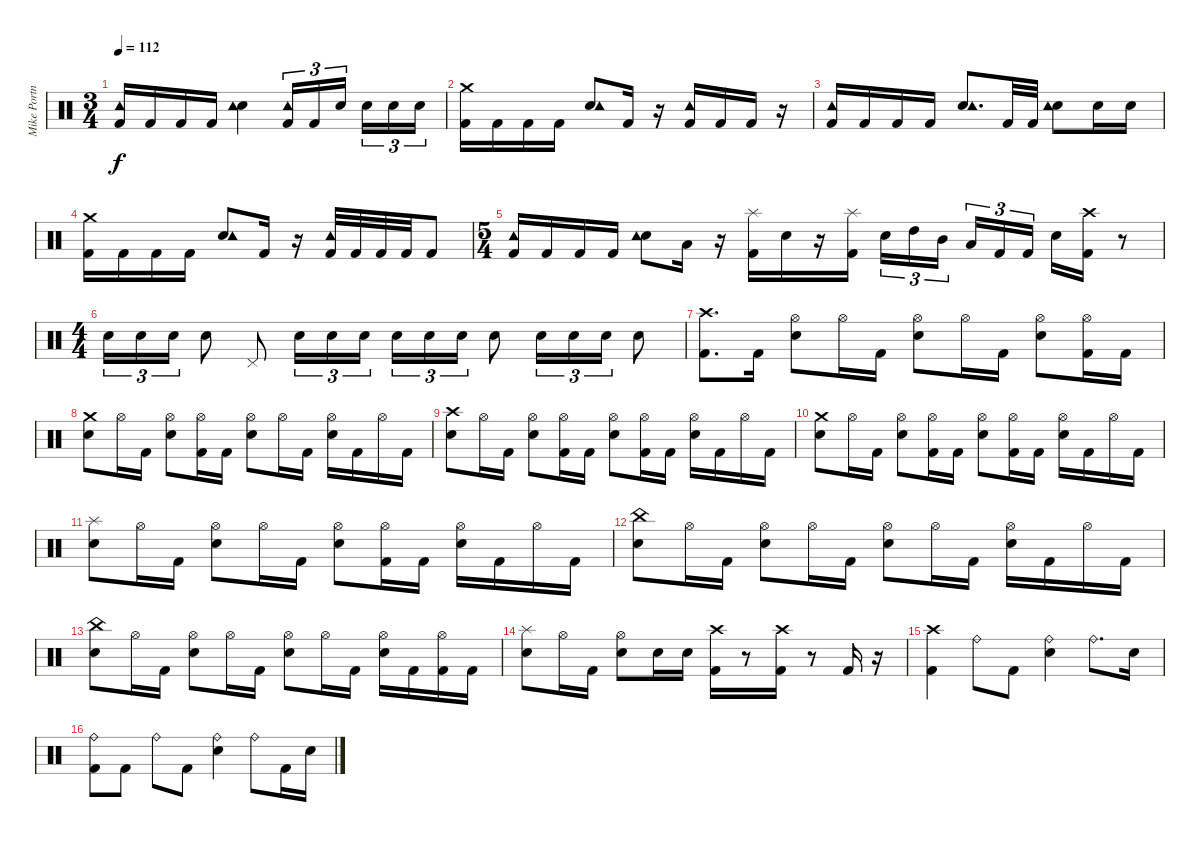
\track ("Mike Portnoy" "Mike Portn") {instrument percussion}
\staff {score}
\articulation defaults
\ts (3 4)
\tempo 112
\clef neutral
\ks c
("Kick (hit) 2" "Tambourine (hit)").16{dy f} "Kick (hit) 2".16 "Kick (hit) 2".16 "Kick (hit) 2".16 ("Electric Snare (hit)" "Tambourine (hit)").4 ("Kick (hit) 2" "Tambourine (hit)").16{tu (3 2)} "Kick (hit) 2".16{tu (3 2)} "Electric Snare (hit)".16{tu (3 2) beam splitsecondary} "Electric Snare (hit)".16{tu (3 2)} "Electric Snare (hit)".16{tu (3 2)} "Electric Snare (hit)".16{tu (3 2)} |
("Kick (hit) 2" "Crash medium (hit)").16 "Kick (hit) 2".16 "Kick (hit) 2".16 "Kick (hit) 2".16 ("Electric Snare (hit)" "Tambourine (hit)").8 "Kick (hit) 2".16 r.16 ("Kick (hit) 2" "Tambourine (hit)").16 "Kick (hit) 2".16 "Kick (hit) 2".16 r.16 |
("Kick (hit) 2" "Tambourine (hit)").16 "Kick (hit) 2".16 "Kick (hit) 2".16 "Kick (hit) 2".16 ("Electric Snare (hit)" "Tambourine (hit)").8{d} "Kick (hit) 2".32 "Kick (hit) 2".32 ("Electric Snare (hit)" "Tambourine (hit)").8 "Electric Snare (hit)".16 "Electric Snare (hit)".16 |
("Kick (hit) 2" "Crash medium (hit)").16 "Kick (hit) 2".16 "Kick (hit) 2".16 "Kick (hit) 2".16 ("Electric Snare (hit)" "Tambourine (hit)").8 "Kick (hit) 2".16 r.16 ("Kick (hit) 2" "Tambourine (hit)").32 "Kick (hit) 2".32 "Kick (hit) 2".32 "Kick (hit) 2".32 "Kick (hit) 2".8 |
\ts (5 4)
("Kick (hit) 2" "Tambourine (hit)").16 "Kick (hit) 2".16 "Kick (hit) 2".16 "Kick (hit) 2".16 ("Electric Snare (hit)" "Tambourine (hit)").8 "Low Tom (hit)".16 r.16 ("Kick (hit) 2" "Splash (hit)").16 "Electric Snare (hit)".16 r.16 ("Kick (hit) 2" "Splash (hit)").16 "Electric Snare (hit)".16{tu (3 2)} "High Tom (hit)".16{tu (3 2)} "Mid Tom (hit)".16{tu (3 2) beam splitsecondary} "Low Tom (hit)".16{tu (3 2)} "Kick (hit) 2".16{tu (3 2)} "Kick (hit) 2".16{tu (3 2)} "Electric Snare (hit)".16 ("Kick (hit) 2" "Crash high (hit)").16 r.8 |
\ts (4 4)
"Electric Snare (hit)".16{tu (3 2)} "Electric Snare (hit)".16{tu (3 2)} "Electric Snare (hit)".16{tu (3 2)} "Electric Snare (hit)".8 "Pedal Hi-Hat (hit)".8 "Electric Snare (hit)".16{tu (3 2)} "Electric Snare (hit)".16{tu (3 2)} "Electric Snare (hit)".16{tu (3 2)} "Electric Snare (hit)".16{tu (3 2)} "Electric Snare (hit)".16{tu (3 2)} "Electric Snare (hit)".16{tu (3 2)} "Electric Snare (hit)".8 "Electric Snare (hit)".16{tu (3 2)} "Electric Snare (hit)".16{tu (3 2)} "Electric Snare (hit)".16{tu (3 2)} "Electric Snare (hit)".8 |
("Kick (hit) 2" "Crash high (hit)").8{d} "Kick (hit) 2".16 ("Electric Snare (hit)" "Hi-Hat (open)").8 "Hi-Hat (open)".16 "Kick (hit) 2".16 ("Electric Snare (hit)" "Hi-Hat (open)").8 "Hi-Hat (open)".16 "Kick (hit) 2".16 ("Electric Snare (hit)" "Hi-Hat (open)").8 ("Kick (hit) 2" "Hi-Hat (open)").16 "Kick (hit) 2".16 |
("Electric Snare (hit)" "Crash medium (hit)").8 "Hi-Hat (open)".16 "Kick (hit) 2".16 ("Electric Snare (hit)" "Hi-Hat (open)").8 ("Kick (hit) 2" "Hi-Hat (open)").16 "Kick (hit) 2".16 ("Electric Snare (hit)" "Hi-Hat (open)").8 "Hi-Hat (open)".16 "Kick (hit) 2".16 ("Electric Snare (hit)" "Hi-Hat (open)").16 "Kick (hit) 2".16 "Hi-Hat (open)".16 "Kick (hit) 2".16 |
("Electric Snare (hit)" "Crash high (hit)").8 "Hi-Hat (open)".16 "Kick (hit) 2".16 ("Electric Snare (hit)" "Hi-Hat (open)").8 ("Kick (hit) 2" "Hi-Hat (open)").16 "Kick (hit) 2".16 ("Electric Snare (hit)" "Hi-Hat (open)").8 ("Kick (hit) 2" "Hi-Hat (open)").16 "Kick (hit) 2".16 ("Electric Snare (hit)" "Hi-Hat (open)").16 "Kick (hit) 2".16 "Hi-Hat (open)".16 "Kick (hit) 2".16 |
("Electric Snare (hit)" "Crash medium (hit)").8 "Hi-Hat (open)".16 "Kick (hit) 2".16 ("Electric Snare (hit)" "Hi-Hat (open)").8 ("Kick (hit) 2" "Hi-Hat (open)").16 "Kick (hit) 2".16 ("Electric Snare (hit)" "Hi-Hat (open)").8 ("Kick (hit) 2" "Hi-Hat (open)").16 "Kick (hit) 2".16 ("Electric Snare (hit)" "Hi-Hat (open)").16 "Kick (hit) 2".16 "Hi-Hat (open)".16 "Kick (hit) 2".16 |
("Electric Snare (hit)" "Splash (hit)").8 "Hi-Hat (open)".16 "Kick (hit) 2".16 ("Electric Snare (hit)" "Hi-Hat (open)").8 "Hi-Hat (open)".16 "Kick (hit) 2".16 ("Electric Snare (hit)" "Hi-Hat (open)").8 ("Kick (hit) 2" "Hi-Hat (open)").16 "Kick (hit) 2".16 ("Electric Snare (hit)" "Hi-Hat (open)").16 "Kick (hit) 2".16 "Hi-Hat (open)".16 "Kick (hit) 2".16 |
("Electric Snare (hit)" "China (hit)").8 "Hi-Hat (open)".16 "Kick (hit) 2".16 ("Electric Snare (hit)" "Hi-Hat (open)").8 "Hi-Hat (open)".16 "Kick (hit) 2".16 ("Electric Snare (hit)" "Hi-Hat (open)").8 "Hi-Hat (open)".16 "Kick (hit) 2".16 ("Electric Snare (hit)" "Hi-Hat (open)").16 "Kick (hit) 2".16 "Hi-Hat (open)".16 "Kick (hit) 2".16 |
("Electric Snare (hit)" "China (hit)").8 "Hi-Hat (open)".16 "Kick (hit) 2".16 ("Electric Snare (hit)" "Hi-Hat (open)").8 "Hi-Hat (open)".16 "Kick (hit) 2".16 ("Electric Snare (hit)" "Hi-Hat (open)").8 "Hi-Hat (open)".16 "Kick (hit) 2".16 ("Electric Snare (hit)" "Hi-Hat (open)").16 "Kick (hit) 2".16 ("Kick (hit) 2" "Hi-Hat (open)").16 "Kick (hit) 2".16 |
("Electric Snare (hit)" "Splash (hit)").8 "Hi-Hat (open)".16 "Kick (hit) 2".16 ("Electric Snare (hit)" "Hi-Hat (open)").8 "Electric Snare (hit)".16 "Electric Snare (hit)".16 ("Kick (hit) 2" "Crash high (hit)").16 r.8 ("Kick (hit) 2" "Crash high (hit)").16 r.8 "Kick (hit) 2".16 r.16 |
("Kick (hit) 2" "Crash high (hit)").4 "Ride (bell)".8 "Kick (hit) 2".8 ("Electric Snare (hit)" "Ride (bell)").4 "Ride (bell)".8{d} "Electric Snare (hit)".16 |
("Kick (hit) 2" "Ride (bell)").8 "Kick (hit) 2".8 "Ride (bell)".8 "Kick (hit) 2".8 ("Electric Snare (hit)" "Ride (bell)").4 "Ride (bell)".8 "Kick (hit) 2".16 "Electric Snare (hit)".16
